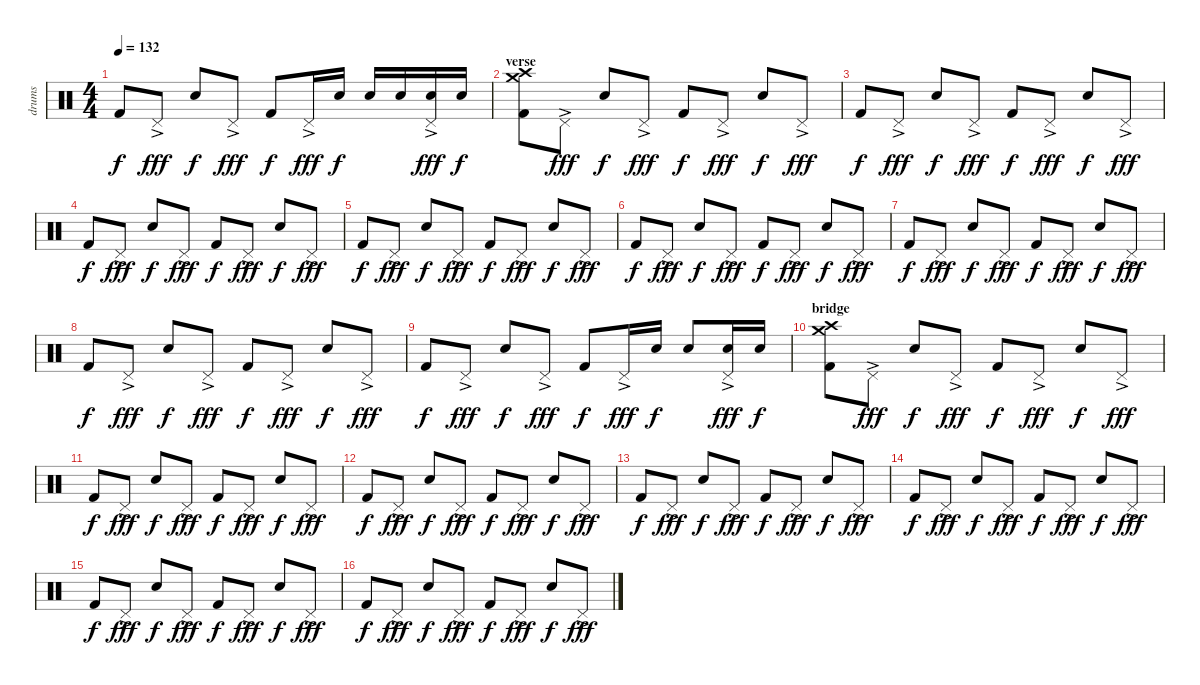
\track ("drums" "drums") {instrument percussion}
\staff {score}
\articulation defaults
\ts (4 4)
\tempo 132
\clef neutral
\ks c "Kick (hit) 2".8{dy f} "Pedal Hi-Hat (hit)"{ac}.8{dy fff} "Snare (hit) 2".8{dy f} "Pedal Hi-Hat (hit)"{ac}.8{dy fff} "Kick (hit) 2".8{dy f} "Pedal Hi-Hat (hit)"{ac}.16{dy fff} "Snare (hit) 2".16{dy f} "Snare (hit) 2".16 "Snare (hit) 2".16
("Pedal Hi-Hat (hit)"{ac} "Snare (hit) 2").16{dy fff} "Snare (hit) 2".16{dy f} |
\section ("" "verse")
("Kick (hit) 2" "Crash medium (hit)" "Crash high (hit)").8 "Pedal Hi-Hat (hit)"{ac}.8{dy fff} "Snare (hit) 2".8{dy f} "Pedal Hi-Hat (hit)"{ac}.8{dy fff} "Kick (hit) 2".8{dy f} "Pedal Hi-Hat (hit)"{ac}.8{dy fff} "Snare (hit) 2".8{dy f} "Pedal Hi-Hat (hit)"{ac}.8{dy fff} |
"Kick (hit) 2".8{dy f} "Pedal Hi-Hat (hit)"{ac}.8{dy fff} "Snare (hit) 2".8{dy f} "Pedal Hi-Hat (hit)"{ac}.8{dy fff} "Kick (hit) 2".8{dy f} "Pedal Hi-Hat (hit)"{ac}.8{dy fff} "Snare (hit) 2".8{dy f} "Pedal Hi-Hat (hit)"{ac}.8{dy fff} |
"Kick (hit) 2".8{dy f} "Pedal Hi-Hat (hit)"{ac}.8{dy fff} "Snare (hit) 2".8{dy f} "Pedal Hi-Hat (hit)"{ac}.8{dy fff} "Kick (hit) 2".8{dy f} "Pedal Hi-Hat (hit)"{ac}.8{dy fff} "Snare (hit) 2".8{dy f} "Pedal Hi-Hat (hit)"{ac}.8{dy fff} |
"Kick (hit) 2".8{dy f} "Pedal Hi-Hat (hit)"{ac}.8{dy fff} "Snare (hit) 2".8{dy f} "Pedal Hi-Hat (hit)"{ac}.8{dy fff} "Kick (hit) 2".8{dy f} "Pedal Hi-Hat (hit)"{ac}.8{dy fff} "Snare (hit) 2".8{dy f} "Pedal Hi-Hat (hit)"{ac}.8{dy fff} |
"Kick (hit) 2".8{dy f} "Pedal Hi-Hat (hit)"{ac}.8{dy fff} "Snare (hit) 2".8{dy f} "Pedal Hi-Hat (hit)"{ac}.8{dy fff} "Kick (hit) 2".8{dy f} "Pedal Hi-Hat (hit)"{ac}.8{dy fff} "Snare (hit) 2".8{dy f} "Pedal Hi-Hat (hit)"{ac}.8{dy fff} |
"Kick (hit) 2".8{dy f} "Pedal Hi-Hat (hit)"{ac}.8{dy fff} "Snare (hit) 2".8{dy f} "Pedal Hi-Hat (hit)"{ac}.8{dy fff} "Kick (hit) 2".8{dy f} "Pedal Hi-Hat (hit)"{ac}.8{dy fff} "Snare (hit) 2".8{dy f} "Pedal Hi-Hat (hit)"{ac}.8{dy fff} |
"Kick (hit) 2".8{dy f} "Pedal Hi-Hat (hit)"{ac}.8{dy fff} "Snare (hit) 2".8{dy f} "Pedal Hi-Hat (hit)"{ac}.8{dy fff} "Kick (hit) 2".8{dy f} "Pedal Hi-Hat (hit)"{ac}.8{dy fff} "Snare (hit) 2".8{dy f} "Pedal Hi-Hat (hit)"{ac}.8{dy fff} |
"Kick (hit) 2".8{dy f} "Pedal Hi-Hat (hit)"{ac}.8{dy fff} "Snare (hit) 2".8{dy f} "Pedal Hi-Hat (hit)"{ac}.8{dy fff} "Kick (hit) 2".8{dy f} "Pedal Hi-Hat (hit)"{ac}.16{dy fff} "Snare (hit) 2".16{dy f} "Snare (hit) 2".8 ("Pedal Hi-Hat (hit)"{ac} "Snare (hit) 2").16{dy fff} "Snare (hit) 2".16{dy f} |
\section ("" "bridge")
("Kick (hit) 2" "Crash medium (hit)" "Crash high (hit)").8 "Pedal Hi-Hat (hit)"{ac}.8{dy fff} "Snare (hit) 2".8{dy f} "Pedal Hi-Hat (hit)"{ac}.8{dy fff} "Kick (hit) 2".8{dy f} "Pedal Hi-Hat (hit)"{ac}.8{dy fff} "Snare (hit) 2".8{dy f} "Pedal Hi-Hat (hit)"{ac}.8{dy fff} |
"Kick (hit) 2".8{dy f} "Pedal Hi-Hat (hit)"{ac}.8{dy fff} "Snare (hit) 2".8{dy f} "Pedal Hi-Hat (hit)"{ac}.8{dy fff} "Kick (hit) 2".8{dy f} "Pedal Hi-Hat (hit)"{ac}.8{dy fff} "Snare (hit) 2".8{dy f} "Pedal Hi-Hat (hit)"{ac}.8{dy fff} |
"Kick (hit) 2".8{dy f} "Pedal Hi-Hat (hit)"{ac}.8{dy fff} "Snare (hit) 2".8{dy f} "Pedal Hi-Hat (hit)"{ac}.8{dy fff} "Kick (hit) 2".8{dy f} "Pedal Hi-Hat (hit)"{ac}.8{dy fff} "Snare (hit) 2".8{dy f} "Pedal Hi-Hat (hit)"{ac}.8{dy fff} |
"Kick (hit) 2".8{dy f} "Pedal Hi-Hat (hit)"{ac}.8{dy fff} "Snare (hit) 2".8{dy f} "Pedal Hi-Hat (hit)"{ac}.8{dy fff} "Kick (hit) 2".8{dy f} "Pedal Hi-Hat (hit)"{ac}.8{dy fff} "Snare (hit) 2".8{dy f} "Pedal Hi-Hat (hit)"{ac}.8{dy fff} |
"Kick (hit) 2".8{dy f} "Pedal Hi-Hat (hit)"{ac}.8{dy fff} "Snare (hit) 2".8{dy f} "Pedal Hi-Hat (hit)"{ac}.8{dy fff} "Kick (hit) 2".8{dy f} "Pedal Hi-Hat (hit)"{ac}.8{dy fff} "Snare (hit) 2".8{dy f} "Pedal Hi-Hat (hit)"{ac}.8{dy fff} |
"Kick (hit) 2".8{dy f} "Pedal Hi-Hat (hit)"{ac}.8{dy fff} "Snare (hit) 2".8{dy f} "Pedal Hi-Hat (hit)"{ac}.8{dy fff} "Kick (hit) 2".8{dy f} "Pedal Hi-Hat (hit)"{ac}.8{dy fff} "Snare (hit) 2".8{dy f} "Pedal Hi-Hat (hit)"{ac}.8{dy fff} |
"Kick (hit) 2".8{dy f} "Pedal Hi-Hat (hit)"{ac}.8{dy fff} "Snare (hit) 2".8{dy f} "Pedal Hi-Hat (hit)"{ac}.8{dy fff} "Kick (hit) 2".8{dy f} "Pedal Hi-Hat (hit)"{ac}.8{dy fff} "Snare (hit) 2".8{dy f} "Pedal Hi-Hat (hit)"{ac}.8{dy fff}
